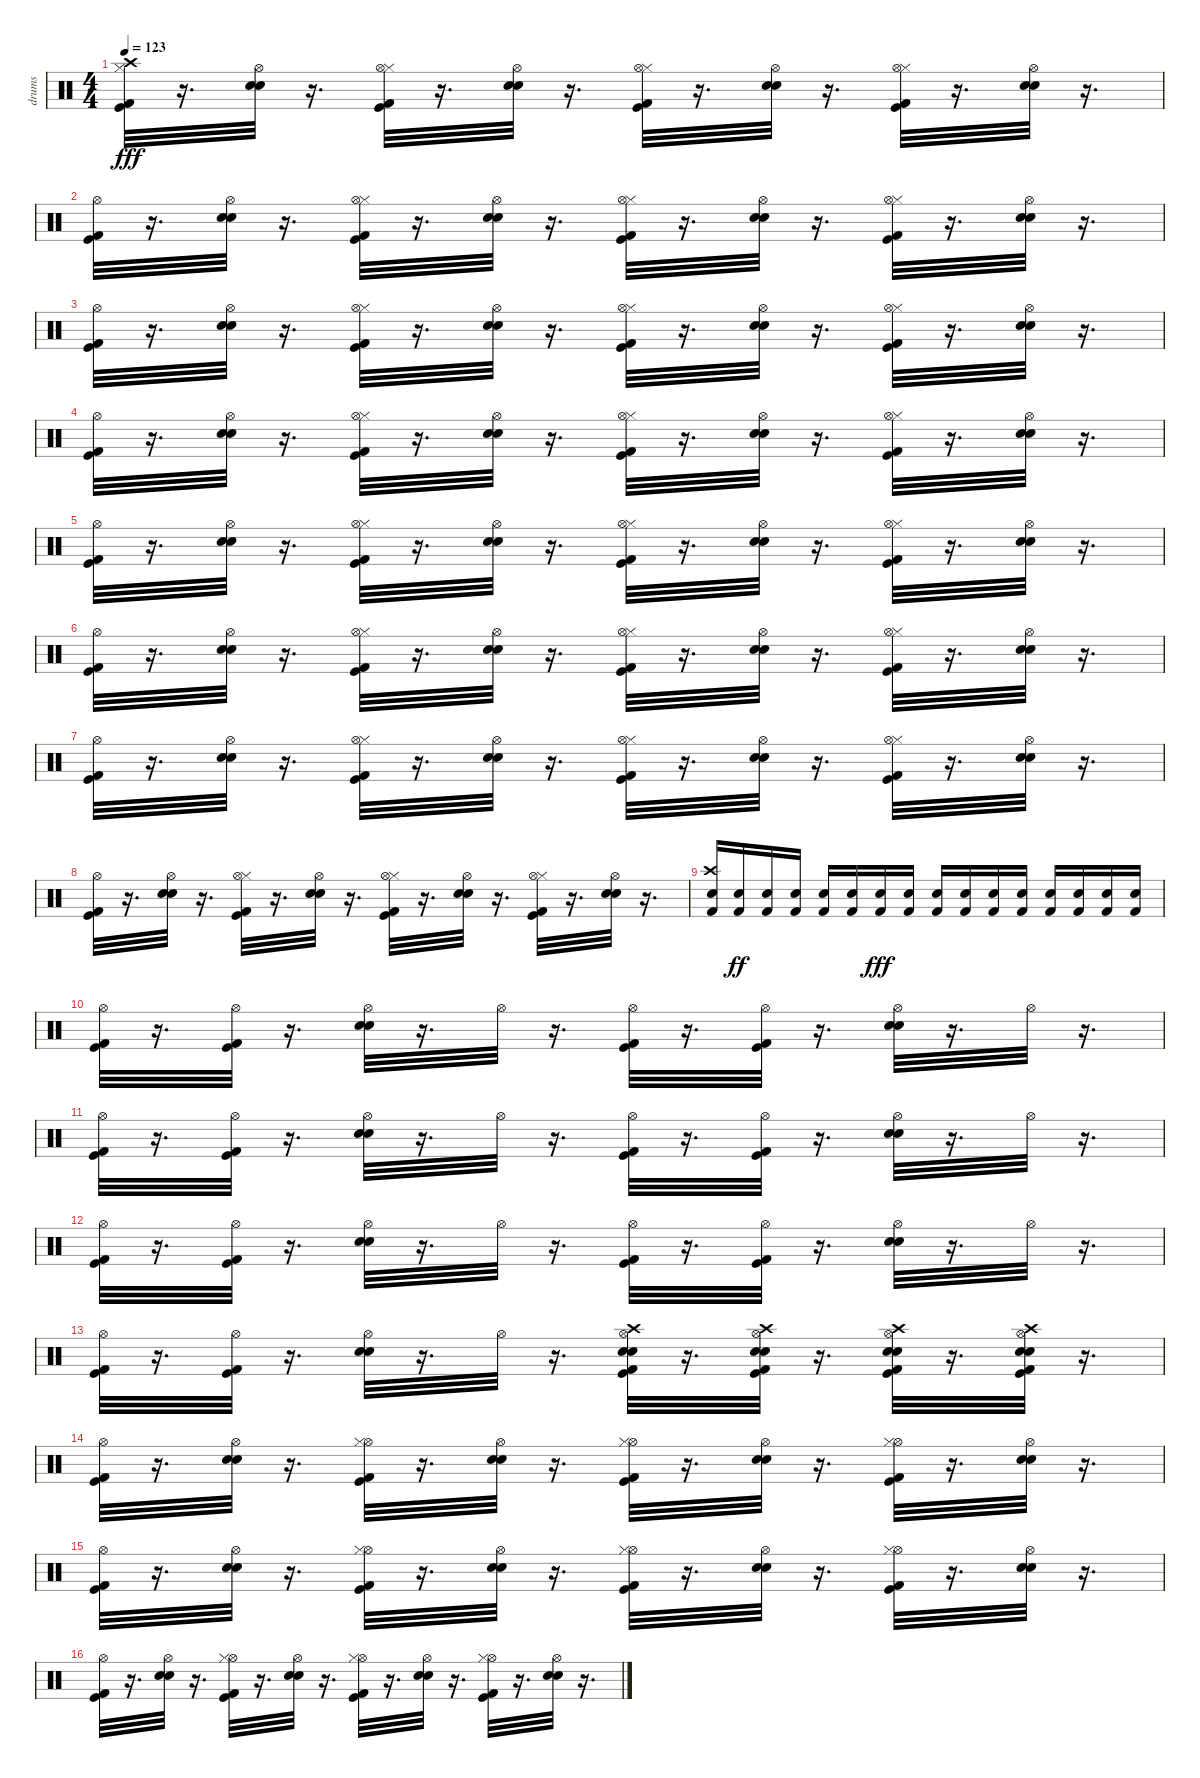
\track ("drums" "drums") {instrument percussion}
\staff {score}
\articulation defaults
\ts (4 4)
\tempo 123
\clef neutral
\ks c
("Kick (hit) 2" "Kick (hit)" "Hi-Hat (closed)" "Crash high (hit)").32{dy fff} r.16{d} ("Electric Snare (hit)" "Snare (hit) 2" "Hi-Hat (open)").32 r.16{d} ("Kick (hit) 2" "Kick (hit)" "Hi-Hat (closed)" "Hi-Hat (open)").32 r.16{d} ("Snare (hit) 2" "Electric Snare (hit)" "Hi-Hat (open)").32 r.16{d} ("Kick (hit) 2" "Kick (hit)" "Hi-Hat (closed)" "Hi-Hat (open)").32 r.16{d} ("Snare (hit) 2" "Electric Snare (hit)" "Hi-Hat (open)").32 r.16{d} ("Kick (hit) 2" "Kick (hit)" "Hi-Hat (closed)" "Hi-Hat (open)").32 r.16{d} ("Snare (hit) 2" "Electric Snare (hit)" "Hi-Hat (open)").32 r.16{d} |
("Hi-Hat (open)" "Kick (hit)" "Kick (hit) 2").32 r.16{d} ("Electric Snare (hit)" "Snare (hit) 2" "Hi-Hat (open)").32 r.16{d} ("Kick (hit) 2" "Kick (hit)" "Hi-Hat (closed)" "Hi-Hat (open)").32 r.16{d} ("Snare (hit) 2" "Electric Snare (hit)" "Hi-Hat (open)").32 r.16{d} ("Kick (hit) 2" "Kick (hit)" "Hi-Hat (closed)" "Hi-Hat (open)").32 r.16{d} ("Snare (hit) 2" "Electric Snare (hit)" "Hi-Hat (open)").32 r.16{d} ("Kick (hit) 2" "Kick (hit)" "Hi-Hat (closed)" "Hi-Hat (open)").32 r.16{d} ("Snare (hit) 2" "Electric Snare (hit)" "Hi-Hat (open)").32 r.16{d} |
("Kick (hit) 2" "Kick (hit)" "Hi-Hat (open)").32 r.16{d} ("Electric Snare (hit)" "Snare (hit) 2" "Hi-Hat (open)").32 r.16{d} ("Kick (hit) 2" "Kick (hit)" "Hi-Hat (closed)" "Hi-Hat (open)").32 r.16{d} ("Snare (hit) 2" "Electric Snare (hit)" "Hi-Hat (open)").32 r.16{d} ("Kick (hit) 2" "Kick (hit)" "Hi-Hat (closed)" "Hi-Hat (open)").32 r.16{d} ("Snare (hit) 2" "Electric Snare (hit)" "Hi-Hat (open)").32 r.16{d} ("Kick (hit) 2" "Kick (hit)" "Hi-Hat (closed)" "Hi-Hat (open)").32 r.16{d} ("Snare (hit) 2" "Electric Snare (hit)" "Hi-Hat (open)").32 r.16{d} |
("Kick (hit) 2" "Kick (hit)" "Hi-Hat (open)").32 r.16{d} ("Electric Snare (hit)" "Snare (hit) 2" "Hi-Hat (open)").32 r.16{d} ("Kick (hit) 2" "Kick (hit)" "Hi-Hat (closed)" "Hi-Hat (open)").32 r.16{d} ("Snare (hit) 2" "Electric Snare (hit)" "Hi-Hat (open)").32 r.16{d} ("Kick (hit) 2" "Kick (hit)" "Hi-Hat (closed)" "Hi-Hat (open)").32 r.16{d} ("Snare (hit) 2" "Electric Snare (hit)" "Hi-Hat (open)").32 r.16{d} ("Kick (hit) 2" "Kick (hit)" "Hi-Hat (closed)" "Hi-Hat (open)").32 r.16{d} ("Snare (hit) 2" "Electric Snare (hit)" "Hi-Hat (open)").32 r.16{d} |
("Kick (hit) 2" "Kick (hit)" "Hi-Hat (open)").32 r.16{d} ("Electric Snare (hit)" "Snare (hit) 2" "Hi-Hat (open)").32 r.16{d} ("Kick (hit) 2" "Kick (hit)" "Hi-Hat (closed)" "Hi-Hat (open)").32 r.16{d} ("Snare (hit) 2" "Electric Snare (hit)" "Hi-Hat (open)").32 r.16{d} ("Kick (hit) 2" "Kick (hit)" "Hi-Hat (closed)" "Hi-Hat (open)").32 r.16{d} ("Snare (hit) 2" "Electric Snare (hit)" "Hi-Hat (open)").32 r.16{d} ("Kick (hit) 2" "Kick (hit)" "Hi-Hat (closed)" "Hi-Hat (open)").32 r.16{d} ("Snare (hit) 2" "Electric Snare (hit)" "Hi-Hat (open)").32 r.16{d} |
("Kick (hit) 2" "Kick (hit)" "Hi-Hat (open)").32 r.16{d} ("Electric Snare (hit)" "Snare (hit) 2" "Hi-Hat (open)").32 r.16{d} ("Kick (hit) 2" "Kick (hit)" "Hi-Hat (closed)" "Hi-Hat (open)").32 r.16{d} ("Snare (hit) 2" "Electric Snare (hit)" "Hi-Hat (open)").32 r.16{d} ("Kick (hit) 2" "Kick (hit)" "Hi-Hat (closed)" "Hi-Hat (open)").32 r.16{d} ("Snare (hit) 2" "Electric Snare (hit)" "Hi-Hat (open)").32 r.16{d} ("Kick (hit) 2" "Kick (hit)" "Hi-Hat (closed)" "Hi-Hat (open)").32 r.16{d} ("Snare (hit) 2" "Electric Snare (hit)" "Hi-Hat (open)").32 r.16{d} |
("Kick (hit) 2" "Kick (hit)" "Hi-Hat (open)").32 r.16{d} ("Electric Snare (hit)" "Snare (hit) 2" "Hi-Hat (open)").32 r.16{d} ("Kick (hit) 2" "Kick (hit)" "Hi-Hat (closed)" "Hi-Hat (open)").32 r.16{d} ("Snare (hit) 2" "Electric Snare (hit)" "Hi-Hat (open)").32 r.16{d} ("Kick (hit) 2" "Kick (hit)" "Hi-Hat (closed)" "Hi-Hat (open)").32 r.16{d} ("Snare (hit) 2" "Electric Snare (hit)" "Hi-Hat (open)").32 r.16{d} ("Kick (hit) 2" "Kick (hit)" "Hi-Hat (closed)" "Hi-Hat (open)").32 r.16{d} ("Snare (hit) 2" "Electric Snare (hit)" "Hi-Hat (open)").32 r.16{d} |
("Hi-Hat (open)" "Kick (hit)" "Kick (hit) 2").32 r.16{d} ("Electric Snare (hit)" "Snare (hit) 2" "Hi-Hat (open)").32 r.16{d} ("Kick (hit) 2" "Kick (hit)" "Hi-Hat (closed)" "Hi-Hat (open)").32 r.16{d} ("Snare (hit) 2" "Electric Snare (hit)" "Hi-Hat (open)").32 r.16{d} ("Kick (hit) 2" "Kick (hit)" "Hi-Hat (closed)" "Hi-Hat (open)").32 r.16{d} ("Snare (hit) 2" "Electric Snare (hit)" "Hi-Hat (open)").32 r.16{d} ("Kick (hit) 2" "Kick (hit)" "Hi-Hat (closed)" "Hi-Hat (open)").32 r.16{d} ("Snare (hit) 2" "Electric Snare (hit)" "Hi-Hat (open)").32 r.16{d} |
("Snare (hit) 2" "Kick (hit) 2" "Crash high (hit)").16 ("Snare (hit) 2" "Kick (hit) 2").16{dy ff} ("Snare (hit) 2" "Kick (hit) 2").16 ("Snare (hit) 2" "Kick (hit) 2").16 ("Snare (hit) 2" "Kick (hit) 2").16 ("Snare (hit) 2" "Kick (hit) 2").16 ("Snare (hit) 2" "Kick (hit) 2").16{dy fff} ("Snare (hit) 2" "Kick (hit) 2").16 ("Snare (hit) 2" "Kick (hit) 2").16 ("Snare (hit) 2" "Kick (hit) 2").16 ("Snare (hit) 2" "Kick (hit) 2").16 ("Snare (hit) 2" "Kick (hit) 2").16 ("Snare (hit) 2" "Kick (hit) 2").16 ("Snare (hit) 2" "Kick (hit) 2").16 ("Snare (hit) 2" "Kick (hit) 2").16 ("Snare (hit) 2" "Kick (hit) 2").16 |
("Kick (hit)" "Kick (hit) 2" "Hi-Hat (open)").32 r.16{d} ("Kick (hit)" "Kick (hit) 2" "Hi-Hat (open)").32 r.16{d} ("Snare (hit) 2" "Electric Snare (hit)" "Hi-Hat (open)").32 r.16{d} "Hi-Hat (open)".32 r.16{d} ("Kick (hit) 2" "Kick (hit)" "Hi-Hat (open)").32 r.16{d} ("Kick (hit) 2" "Kick (hit)" "Hi-Hat (open)").32 r.16{d} ("Snare (hit) 2" "Electric Snare (hit)" "Hi-Hat (open)").32 r.16{d} "Hi-Hat (open)".32 r.16{d} |
("Hi-Hat (open)" "Kick (hit) 2" "Kick (hit)").32 r.16{d} ("Kick (hit)" "Kick (hit) 2" "Hi-Hat (open)").32 r.16{d} ("Snare (hit) 2" "Electric Snare (hit)" "Hi-Hat (open)").32 r.16{d} "Hi-Hat (open)".32 r.16{d} ("Kick (hit) 2" "Kick (hit)" "Hi-Hat (open)").32 r.16{d} ("Kick (hit) 2" "Kick (hit)" "Hi-Hat (open)").32 r.16{d} ("Snare (hit) 2" "Electric Snare (hit)" "Hi-Hat (open)").32 r.16{d} "Hi-Hat (open)".32 r.16{d} |
("Hi-Hat (open)" "Kick (hit) 2" "Kick (hit)").32 r.16{d} ("Kick (hit)" "Kick (hit) 2" "Hi-Hat (open)").32 r.16{d} ("Snare (hit) 2" "Electric Snare (hit)" "Hi-Hat (open)").32 r.16{d} "Hi-Hat (open)".32 r.16{d} ("Kick (hit) 2" "Kick (hit)" "Hi-Hat (open)").32 r.16{d} ("Kick (hit) 2" "Kick (hit)" "Hi-Hat (open)").32 r.16{d} ("Snare (hit) 2" "Electric Snare (hit)" "Hi-Hat (open)").32 r.16{d} "Hi-Hat (open)".32 r.16{d} |
("Hi-Hat (open)" "Kick (hit) 2" "Kick (hit)").32 r.16{d} ("Kick (hit)" "Kick (hit) 2" "Hi-Hat (open)").32 r.16{d} ("Snare (hit) 2" "Electric Snare (hit)" "Hi-Hat (open)").32 r.16{d} "Hi-Hat (open)".32 r.16{d} ("Kick (hit) 2" "Kick (hit)" "Hi-Hat (open)" "Electric Snare (hit)" "Snare (hit) 2" "Crash high (hit)").32 r.16{d} ("Kick (hit) 2" "Kick (hit)" "Hi-Hat (open)" "Electric Snare (hit)" "Snare (hit) 2" "Crash high (hit)").32 r.16{d} ("Snare (hit) 2" "Electric Snare (hit)" "Hi-Hat (open)" "Kick (hit)" "Kick (hit) 2" "Crash high (hit)").32 r.16{d} ("Hi-Hat (open)" "Electric Snare (hit)" "Snare (hit) 2" "Kick (hit) 2" "Kick (hit)" "Crash high (hit)").32 r.16{d} |
("Hi-Hat (open)" "Kick (hit)" "Kick (hit) 2").32 r.16{d} ("Hi-Hat (open)" "Electric Snare (hit)" "Snare (hit) 2").32 r.16{d} ("Hi-Hat (open)" "Kick (hit) 2" "Kick (hit)" "Hi-Hat (closed)").32 r.16{d} ("Hi-Hat (open)" "Snare (hit) 2" "Electric Snare (hit)").32 r.16{d} ("Hi-Hat (open)" "Kick (hit) 2" "Kick (hit)" "Hi-Hat (closed)").32 r.16{d} ("Hi-Hat (open)" "Snare (hit) 2" "Electric Snare (hit)").32 r.16{d} ("Hi-Hat (open)" "Kick (hit) 2" "Kick (hit)" "Hi-Hat (closed)").32 r.16{d} ("Hi-Hat (open)" "Snare (hit) 2" "Electric Snare (hit)").32 r.16{d} |
("Hi-Hat (open)" "Kick (hit)" "Kick (hit) 2").32 r.16{d} ("Hi-Hat (open)" "Electric Snare (hit)" "Snare (hit) 2").32 r.16{d} ("Hi-Hat (open)" "Kick (hit) 2" "Kick (hit)" "Hi-Hat (closed)").32 r.16{d} ("Hi-Hat (open)" "Snare (hit) 2" "Electric Snare (hit)").32 r.16{d} ("Hi-Hat (open)" "Kick (hit) 2" "Kick (hit)" "Hi-Hat (closed)").32 r.16{d} ("Hi-Hat (open)" "Snare (hit) 2" "Electric Snare (hit)").32 r.16{d} ("Hi-Hat (open)" "Kick (hit) 2" "Kick (hit)" "Hi-Hat (closed)").32 r.16{d} ("Hi-Hat (open)" "Snare (hit) 2" "Electric Snare (hit)").32 r.16{d} |
("Hi-Hat (open)" "Kick (hit) 2" "Kick (hit)").32 r.16{d} ("Hi-Hat (open)" "Electric Snare (hit)" "Snare (hit) 2").32 r.16{d} ("Hi-Hat (open)" "Kick (hit) 2" "Kick (hit)" "Hi-Hat (closed)").32 r.16{d} ("Hi-Hat (open)" "Snare (hit) 2" "Electric Snare (hit)").32 r.16{d} ("Hi-Hat (open)" "Kick (hit) 2" "Kick (hit)" "Hi-Hat (closed)").32 r.16{d} ("Hi-Hat (open)" "Snare (hit) 2" "Electric Snare (hit)").32 r.16{d} ("Hi-Hat (open)" "Kick (hit) 2" "Kick (hit)" "Hi-Hat (closed)").32 r.16{d} ("Hi-Hat (open)" "Snare (hit) 2" "Electric Snare (hit)").32 r.16{d}
